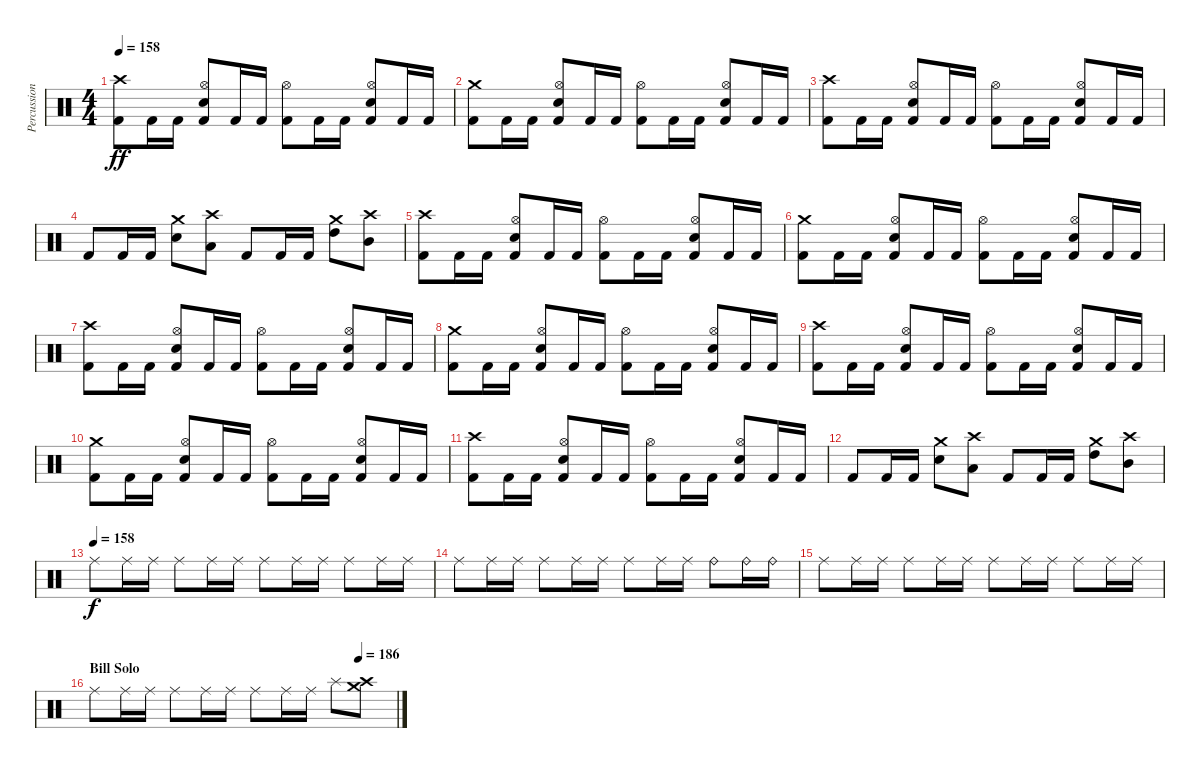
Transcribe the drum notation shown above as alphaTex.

\track ("Percussion" "Percussion") {instrument percussion}
\staff {score}
\articulation defaults
\ts (4 4)
\tempo 158
\clef neutral
\ks c
("Crash high (hit)" "Kick (hit) 2").8{dy ff} "Kick (hit) 2".16 "Kick (hit) 2".16 ("Hi-Hat (open)" "Snare (hit) 2" "Kick (hit) 2").8 "Kick (hit) 2".16 "Kick (hit) 2".16 ("Hi-Hat (open)" "Kick (hit) 2").8 "Kick (hit) 2".16 "Kick (hit) 2".16 ("Hi-Hat (open)" "Snare (hit) 2" "Kick (hit) 2").8 "Kick (hit) 2".16 "Kick (hit) 2".16 |
("Crash medium (hit)" "Kick (hit) 2").8 "Kick (hit) 2".16 "Kick (hit) 2".16 ("Hi-Hat (open)" "Snare (hit) 2" "Kick (hit) 2").8 "Kick (hit) 2".16 "Kick (hit) 2".16 ("Hi-Hat (open)" "Kick (hit) 2").8 "Kick (hit) 2".16 "Kick (hit) 2".16 ("Hi-Hat (open)" "Snare (hit) 2" "Kick (hit) 2").8 "Kick (hit) 2".16 "Kick (hit) 2".16 |
("Crash high (hit)" "Kick (hit) 2").8 "Kick (hit) 2".16 "Kick (hit) 2".16 ("Hi-Hat (open)" "Snare (hit) 2" "Kick (hit) 2").8 "Kick (hit) 2".16 "Kick (hit) 2".16 ("Hi-Hat (open)" "Kick (hit) 2").8 "Kick (hit) 2".16 "Kick (hit) 2".16 ("Hi-Hat (open)" "Snare (hit) 2" "Kick (hit) 2").8 "Kick (hit) 2".16 "Kick (hit) 2".16 |
"Kick (hit) 2".8 "Kick (hit) 2".16 "Kick (hit) 2".16 ("Crash medium (hit)" "Snare (hit) 2").8 ("Crash high (hit)" "Low Tom (hit)").8 "Kick (hit) 2".8 "Kick (hit) 2".16 "Kick (hit) 2".16 ("Crash medium (hit)" "High Tom (hit)").8 ("Crash high (hit)" "Mid Tom (hit)").8 |
("Crash high (hit)" "Kick (hit) 2").8 "Kick (hit) 2".16 "Kick (hit) 2".16 ("Hi-Hat (open)" "Snare (hit) 2" "Kick (hit) 2").8 "Kick (hit) 2".16 "Kick (hit) 2".16 ("Hi-Hat (open)" "Kick (hit) 2").8 "Kick (hit) 2".16 "Kick (hit) 2".16 ("Hi-Hat (open)" "Snare (hit) 2" "Kick (hit) 2").8 "Kick (hit) 2".16 "Kick (hit) 2".16 |
("Crash medium (hit)" "Kick (hit) 2").8 "Kick (hit) 2".16 "Kick (hit) 2".16 ("Hi-Hat (open)" "Snare (hit) 2" "Kick (hit) 2").8 "Kick (hit) 2".16 "Kick (hit) 2".16 ("Hi-Hat (open)" "Kick (hit) 2").8 "Kick (hit) 2".16 "Kick (hit) 2".16 ("Hi-Hat (open)" "Snare (hit) 2" "Kick (hit) 2").8 "Kick (hit) 2".16 "Kick (hit) 2".16 |
("Crash high (hit)" "Kick (hit) 2").8 "Kick (hit) 2".16 "Kick (hit) 2".16 ("Hi-Hat (open)" "Snare (hit) 2" "Kick (hit) 2").8 "Kick (hit) 2".16 "Kick (hit) 2".16 ("Hi-Hat (open)" "Kick (hit) 2").8 "Kick (hit) 2".16 "Kick (hit) 2".16 ("Hi-Hat (open)" "Snare (hit) 2" "Kick (hit) 2").8 "Kick (hit) 2".16 "Kick (hit) 2".16 |
("Crash medium (hit)" "Kick (hit) 2").8 "Kick (hit) 2".16 "Kick (hit) 2".16 ("Hi-Hat (open)" "Snare (hit) 2" "Kick (hit) 2").8 "Kick (hit) 2".16 "Kick (hit) 2".16 ("Hi-Hat (open)" "Kick (hit) 2").8 "Kick (hit) 2".16 "Kick (hit) 2".16 ("Hi-Hat (open)" "Snare (hit) 2" "Kick (hit) 2").8 "Kick (hit) 2".16 "Kick (hit) 2".16 |
("Crash high (hit)" "Kick (hit) 2").8 "Kick (hit) 2".16 "Kick (hit) 2".16 ("Hi-Hat (open)" "Snare (hit) 2" "Kick (hit) 2").8 "Kick (hit) 2".16 "Kick (hit) 2".16 ("Hi-Hat (open)" "Kick (hit) 2").8 "Kick (hit) 2".16 "Kick (hit) 2".16 ("Hi-Hat (open)" "Snare (hit) 2" "Kick (hit) 2").8 "Kick (hit) 2".16 "Kick (hit) 2".16 |
("Crash medium (hit)" "Kick (hit) 2").8 "Kick (hit) 2".16 "Kick (hit) 2".16 ("Hi-Hat (open)" "Snare (hit) 2" "Kick (hit) 2").8 "Kick (hit) 2".16 "Kick (hit) 2".16 ("Hi-Hat (open)" "Kick (hit) 2").8 "Kick (hit) 2".16 "Kick (hit) 2".16 ("Hi-Hat (open)" "Snare (hit) 2" "Kick (hit) 2").8 "Kick (hit) 2".16 "Kick (hit) 2".16 |
("Crash high (hit)" "Kick (hit) 2").8 "Kick (hit) 2".16 "Kick (hit) 2".16 ("Hi-Hat (open)" "Snare (hit) 2" "Kick (hit) 2").8 "Kick (hit) 2".16 "Kick (hit) 2".16 ("Hi-Hat (open)" "Kick (hit) 2").8 "Kick (hit) 2".16 "Kick (hit) 2".16 ("Hi-Hat (open)" "Snare (hit) 2" "Kick (hit) 2").8 "Kick (hit) 2".16 "Kick (hit) 2".16 |
"Kick (hit) 2".8 "Kick (hit) 2".16 "Kick (hit) 2".16 ("Crash medium (hit)" "Snare (hit) 2").8 ("Crash high (hit)" "Low Tom (hit)").8 "Kick (hit) 2".8 "Kick (hit) 2".16 "Kick (hit) 2".16 ("Crash medium (hit)" "High Tom (hit)").8 ("Crash high (hit)" "Mid Tom (hit)").8 |
\tempo (158)
"Ride (middle)".8{dy f} "Ride (middle)".16 "Ride (middle)".16 "Ride (middle)".8 "Ride (middle)".16 "Ride (middle)".16 "Ride (middle)".8 "Ride (middle)".16 "Ride (middle)".16 "Ride (middle)".8 "Ride (middle)".16 "Ride (middle)".16 |
"Ride (middle)".8 "Ride (middle)".16 "Ride (middle)".16 "Ride (middle)".8 "Ride (middle)".16 "Ride (middle)".16 "Ride (middle)".8 "Ride (middle)".16 "Ride (middle)".16 "Ride (bell)".8 "Ride (bell)".16 "Ride (bell)".16 |
"Ride (middle)".8 "Ride (middle)".16 "Ride (middle)".16 "Ride (middle)".8 "Ride (middle)".16 "Ride (middle)".16 "Ride (middle)".8 "Ride (middle)".16 "Ride (middle)".16 "Ride (middle)".8 "Ride (middle)".16 "Ride (middle)".16 |
\section ("" "Bill Solo")
\tempo (186 0.875)
"Ride (middle)".8 "Ride (middle)".16 "Ride (middle)".16 "Ride (middle)".8 "Ride (middle)".16 "Ride (middle)".16 "Ride (middle)".8 "Ride (middle)".16 "Ride (middle)".16 "Splash (hit)".8 ("Crash medium (hit)" "Crash high (hit)").8
